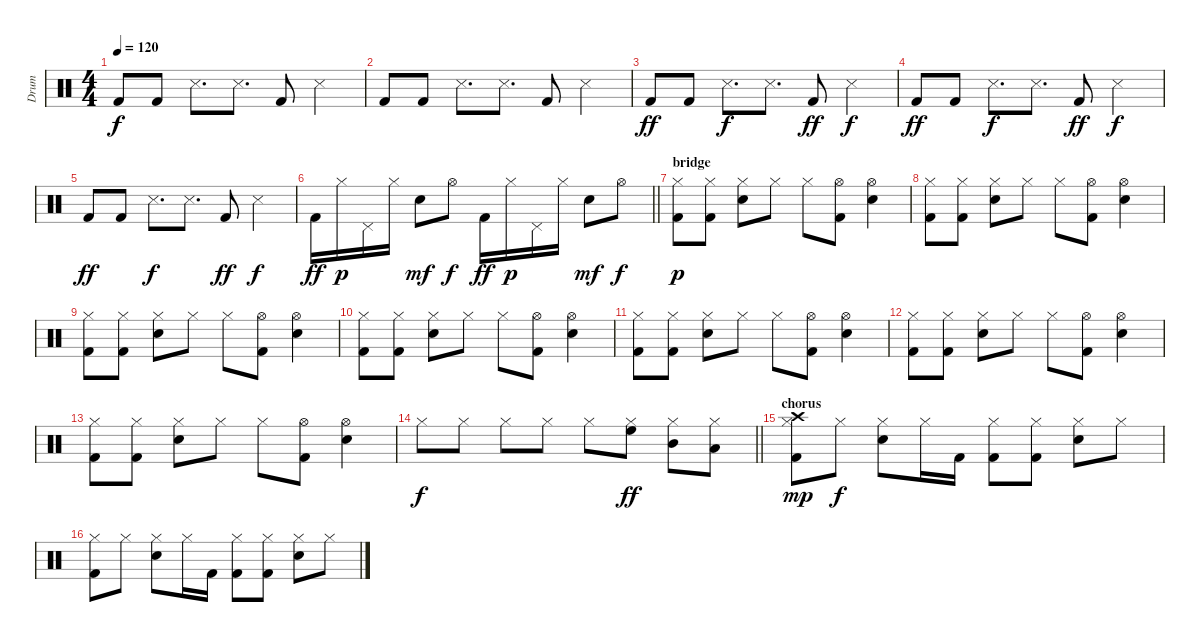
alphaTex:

\track ("Drum" "Drum") {instrument percussion}
\staff {score}
\articulation defaults
\ts (4 4)
\tempo 120
\clef neutral
\ks c "Kick (hit) 2".8{dy f} "Kick (hit) 2".8 "Snare (side stick) 3".8{d} "Snare (side stick) 3".8{d} "Kick (hit) 2".8 "Snare (side stick) 3".4
|
"Kick (hit) 2".8 "Kick (hit) 2".8 "Snare (side stick) 3".8{d} "Snare (side stick) 3".8{d} "Kick (hit) 2".8 "Snare (side stick) 3".4 |
"Kick (hit) 2".8{dy ff} "Kick (hit) 2".8 "Snare (side stick) 3".8{d dy f} "Snare (side stick) 3".8{d} "Kick (hit) 2".8{dy ff} "Snare (side stick) 3".4{dy f} |
"Kick (hit) 2".8{dy ff} "Kick (hit) 2".8 "Snare (side stick) 3".8{d dy f} "Snare (side stick) 3".8{d} "Kick (hit) 2".8{dy ff} "Snare (side stick) 3".4{dy f} |
"Kick (hit) 2".8{dy ff} "Kick (hit) 2".8 "Snare (side stick) 3".8{d dy f} "Snare (side stick) 3".8{d} "Kick (hit) 2".8{dy ff} "Snare (side stick) 3".4{dy f} |
\barLineRight lightlight "Kick (hit) 2".16{dy ff} "Hi-Hat (closed)".16{dy p} "Pedal Hi-Hat (hit)".16 "Hi-Hat (closed)".16 "Electric Snare (hit)".8{dy mf} "Hi-Hat (open)".8{dy f} "Kick (hit) 2".16{dy ff} "Hi-Hat (closed)".16{dy p} "Pedal Hi-Hat (hit)".16 "Hi-Hat (closed)".16 "Electric Snare (hit)".8{dy mf} "Hi-Hat (open)".8{dy f}
|
\section ("" "bridge")
("Kick (hit) 2" "Hi-Hat (closed)").8{dy p} ("Kick (hit) 2" "Hi-Hat (closed)").8 ("Hi-Hat (closed)" "Snare (hit) 2").8 "Hi-Hat (closed)".8 "Hi-Hat (closed)".8 ("Kick (hit) 2" "Hi-Hat (open)").8 ("Snare (hit) 2" "Hi-Hat (open)").4 |
("Kick (hit) 2" "Hi-Hat (closed)").8 ("Kick (hit) 2" "Hi-Hat (closed)").8 ("Hi-Hat (closed)" "Snare (hit) 2").8 "Hi-Hat (closed)".8 "Hi-Hat (closed)".8 ("Kick (hit) 2" "Hi-Hat (open)").8 ("Snare (hit) 2" "Hi-Hat (open)").4 |
("Kick (hit) 2" "Hi-Hat (closed)").8 ("Kick (hit) 2" "Hi-Hat (closed)").8 ("Hi-Hat (closed)" "Snare (hit) 2").8 "Hi-Hat (closed)".8 "Hi-Hat (closed)".8 ("Kick (hit) 2" "Hi-Hat (open)").8 ("Snare (hit) 2" "Hi-Hat (open)").4 |
("Kick (hit) 2" "Hi-Hat (closed)").8 ("Kick (hit) 2" "Hi-Hat (closed)").8 ("Hi-Hat (closed)" "Snare (hit) 2").8 "Hi-Hat (closed)".8 "Hi-Hat (closed)".8 ("Kick (hit) 2" "Hi-Hat (open)").8 ("Snare (hit) 2" "Hi-Hat (open)").4 |
("Kick (hit) 2" "Hi-Hat (closed)").8 ("Kick (hit) 2" "Hi-Hat (closed)").8 ("Hi-Hat (closed)" "Snare (hit) 2").8 "Hi-Hat (closed)".8 "Hi-Hat (closed)".8 ("Kick (hit) 2" "Hi-Hat (open)").8 ("Snare (hit) 2" "Hi-Hat (open)").4 |
("Kick (hit) 2" "Hi-Hat (closed)").8 ("Kick (hit) 2" "Hi-Hat (closed)").8 ("Hi-Hat (closed)" "Snare (hit) 2").8 "Hi-Hat (closed)".8 "Hi-Hat (closed)".8 ("Kick (hit) 2" "Hi-Hat (open)").8 ("Snare (hit) 2" "Hi-Hat (open)").4 |
("Kick (hit) 2" "Hi-Hat (closed)").8 ("Kick (hit) 2" "Hi-Hat (closed)").8 ("Hi-Hat (closed)" "Snare (hit) 2").8 "Hi-Hat (closed)".8 "Hi-Hat (closed)".8 ("Kick (hit) 2" "Hi-Hat (open)").8 ("Snare (hit) 2" "Hi-Hat (open)").4 |
\barLineRight lightlight "Hi-Hat (closed)".8{dy f} "Hi-Hat (closed)".8 "Hi-Hat (closed)".8 "Hi-Hat (closed)".8 "Hi-Hat (closed)".8
("Hi-Hat (closed)" "High Floor Tom (hit)").8{dy ff} ("Hi-Hat (closed)" "Mid Tom (hit)").8 ("Hi-Hat (closed)" "Low Tom (hit)").8 |
\section ("" "chorus")
("Kick (hit) 2" "Hi-Hat (closed)" "Crash high (hit)").8{dy mp} "Hi-Hat (closed)".8{dy f} ("Electric Snare (hit)" "Hi-Hat (closed)").8 "Hi-Hat (closed)".16 "Kick (hit) 2".16 ("Kick (hit) 2" "Hi-Hat (closed)").8 ("Kick (hit) 2" "Hi-Hat (closed)").8 ("Electric Snare (hit)" "Hi-Hat (closed)").8 "Hi-Hat (closed)".8 |
("Kick (hit) 2" "Hi-Hat (closed)").8 "Hi-Hat (closed)".8 ("Electric Snare (hit)" "Hi-Hat (closed)").8 "Hi-Hat (closed)".16 "Kick (hit) 2".16 ("Kick (hit) 2" "Hi-Hat (closed)").8 ("Kick (hit) 2" "Hi-Hat (closed)").8 ("Electric Snare (hit)" "Hi-Hat (closed)").8 "Hi-Hat (closed)".8
